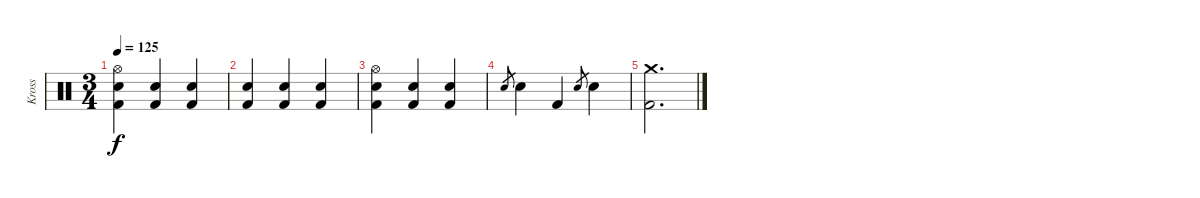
\track ("Kross" "Kross") {instrument percussion}
\staff {score}
\articulation defaults
\ts (3 4)
\tempo 125
\clef neutral
\ks c
("Hi-Hat (open)" "Electric Snare (hit)" "Kick (hit) 2").4{dy f} ("Electric Snare (hit)" "Kick (hit) 2").4 ("Electric Snare (hit)" "Kick (hit) 2").4 |
("Electric Snare (hit)" "Kick (hit) 2").4 ("Electric Snare (hit)" "Kick (hit) 2").4 ("Electric Snare (hit)" "Kick (hit) 2").4 |
("Hi-Hat (open)" "Electric Snare (hit)" "Kick (hit) 2").4 ("Electric Snare (hit)" "Kick (hit) 2").4 ("Electric Snare (hit)" "Kick (hit) 2").4 |
"Electric Snare (hit)".8{gr} "Electric Snare (hit)".4 "Kick (hit) 2".4 "Electric Snare (hit)".8{gr} "Electric Snare (hit)".4 |
("Crash medium (hit)" "Kick (hit) 2").2{d}
